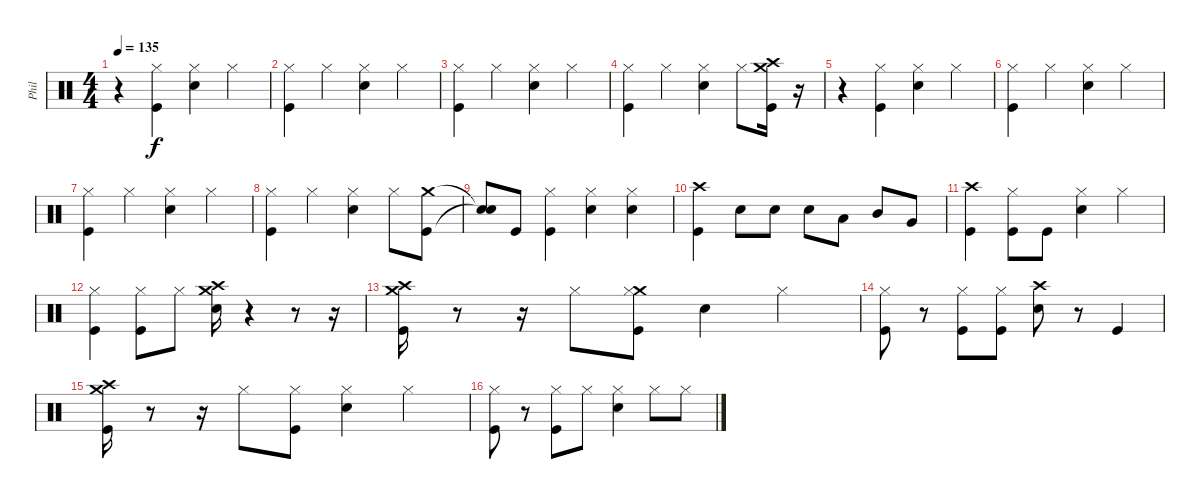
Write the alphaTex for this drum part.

\track ("Phil" "Phil") {instrument percussion}
\staff {score}
\articulation defaults
\ts (4 4)
\tempo 135
\clef neutral
\ks c
r.4{dy f} ("Kick (hit)" "Hi-Hat (closed)").4 ("Snare (hit) 2" "Hi-Hat (closed)").4 "Hi-Hat (closed)".4 |
("Kick (hit)" "Hi-Hat (closed)").4 "Hi-Hat (closed)".4 ("Snare (hit) 2" "Hi-Hat (closed)").4 "Hi-Hat (closed)".4 |
("Kick (hit)" "Hi-Hat (closed)").4 "Hi-Hat (closed)".4 ("Snare (hit) 2" "Hi-Hat (closed)").4 "Hi-Hat (closed)".4 |
("Kick (hit)" "Hi-Hat (closed)").4 "Hi-Hat (closed)".4 ("Snare (hit) 2" "Hi-Hat (closed)").4 "Hi-Hat (closed)".8 ("Crash medium (hit)" "Crash high (hit)" "Kick (hit)").16 r.16 |
r.4 ("Kick (hit)" "Hi-Hat (closed)").4 ("Snare (hit) 2" "Hi-Hat (closed)").4 "Hi-Hat (closed)".4 |
("Kick (hit)" "Hi-Hat (closed)").4 "Hi-Hat (closed)".4 ("Snare (hit) 2" "Hi-Hat (closed)").4 "Hi-Hat (closed)".4 |
("Kick (hit)" "Hi-Hat (closed)").4 "Hi-Hat (closed)".4 ("Snare (hit) 2" "Hi-Hat (closed)").4 "Hi-Hat (closed)".4 |
("Kick (hit)" "Hi-Hat (closed)").4 "Hi-Hat (closed)".4 ("Snare (hit) 2" "Hi-Hat (closed)").4 "Hi-Hat (closed)".8 ("Kick (hit)" "Crash medium (hit)").8 |
("Snare (hit)"{t} "Snare (hit)"{t}).8 "Kick (hit)".8 ("Kick (hit)" "Hi-Hat (closed)").4 ("Snare (hit) 2" "Hi-Hat (closed)").4 ("Snare (hit) 2" "Hi-Hat (closed)").4 |
("Crash high (hit)" "Kick (hit)").4 "Snare (hit) 2".8 "Snare (hit) 2".8 "Snare (hit) 2".8 "Low Tom (hit)".8 "Mid Tom (hit)".8 "Very Low Tom (hit)".8 |
("Kick (hit)" "Crash high (hit)").4 ("Hi-Hat (closed)" "Kick (hit)").8 "Kick (hit)".8 ("Hi-Hat (closed)" "Snare (hit) 2").4 "Hi-Hat (closed)".4 |
("Hi-Hat (closed)" "Kick (hit)").4 ("Hi-Hat (closed)" "Kick (hit)").8 "Hi-Hat (closed)".8 ("Crash medium (hit)" "Crash high (hit)" "Snare (hit) 2").16 r.4 r.8 r.16 |
("Crash medium (hit)" "Crash high (hit)" "Kick (hit)").16 r.8 r.16 "Hi-Hat (closed)".8 ("Crash medium (hit)" "Kick (hit)" "Hi-Hat (closed)").8 "Snare (hit) 2".4 "Hi-Hat (closed)".4 |
("Hi-Hat (closed)" "Kick (hit)").8 r.8 ("Kick (hit)" "Hi-Hat (closed)").8 ("Hi-Hat (closed)" "Kick (hit)").8 ("Crash high (hit)" "Snare (hit) 2").8 r.8 "Kick (hit)".4 |
("Crash medium (hit)" "Kick (hit)" "Crash high (hit)").16 r.8 r.16 "Hi-Hat (closed)".8 ("Kick (hit)" "Hi-Hat (closed)").8 ("Hi-Hat (closed)" "Snare (hit) 2").4 "Hi-Hat (closed)".4 |
("Hi-Hat (closed)" "Kick (hit)").8 r.8 ("Hi-Hat (closed)" "Kick (hit)").8 "Hi-Hat (closed)".8 ("Hi-Hat (closed)" "Snare (hit) 2").4 "Hi-Hat (closed)".8 "Hi-Hat (closed)".8
